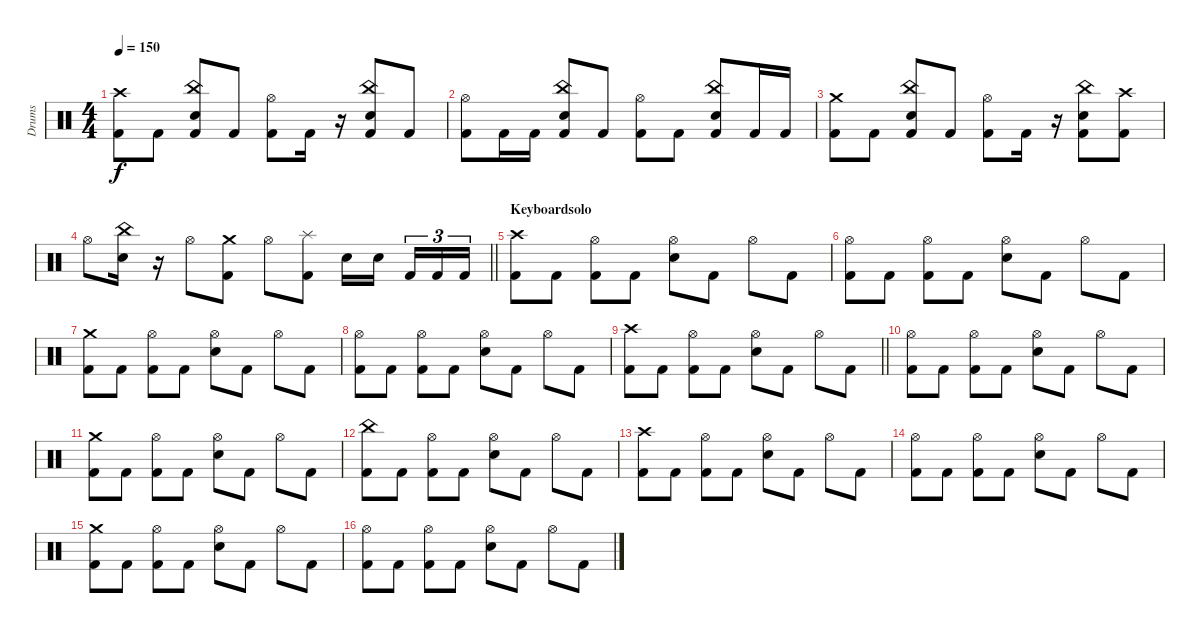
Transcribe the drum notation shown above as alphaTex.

\track ("Drums" "Drums") {instrument percussion}
\staff {score}
\articulation defaults
\ts (4 4)
\tempo 150
\clef neutral
\ks c
("Crash high (hit)" "Kick (hit) 2").8{dy f} "Kick (hit) 2".8 ("China (hit)" "Snare (hit) 2" "Kick (hit) 2").8 "Kick (hit) 2".8 ("Hi-Hat (open)" "Kick (hit) 2").8 "Kick (hit) 2".16 r.16 ("China (hit)" "Snare (hit) 2" "Kick (hit) 2").8 "Kick (hit) 2".8 |
("Hi-Hat (open)" "Kick (hit) 2").8 "Kick (hit) 2".16 "Kick (hit) 2".16 ("China (hit)" "Snare (hit) 2" "Kick (hit) 2").8 "Kick (hit) 2".8 ("Hi-Hat (open)" "Kick (hit) 2").8 "Kick (hit) 2".8 ("China (hit)" "Snare (hit) 2" "Kick (hit) 2").8 "Kick (hit) 2".16 "Kick (hit) 2".16 |
("Crash medium (hit)" "Kick (hit) 2").8 "Kick (hit) 2".8 ("China (hit)" "Snare (hit) 2" "Kick (hit) 2").8 "Kick (hit) 2".8 ("Hi-Hat (open)" "Kick (hit) 2").8 "Kick (hit) 2".16 r.16 ("China (hit)" "Snare (hit) 2" "Kick (hit) 2").8 ("Crash high (hit)" "Kick (hit) 2").8 |
\barLineRight lightlight "Hi-Hat (open)".8
("China (hit)" "Snare (hit) 2").16 r.16 "Hi-Hat (open)".8 ("Crash medium (hit)" "Kick (hit) 2").8 "Hi-Hat (open)".8 ("Splash (hit)" "Kick (hit) 2").8 "Snare (hit) 2".16 "Snare (hit) 2".16{beam splitsecondary} "Kick (hit) 2".16{tu (3 2)} "Kick (hit) 2".16{tu (3 2)} "Kick (hit) 2".16{tu (3 2)} |
\section ("" "Keyboardsolo")
("Crash high (hit)" "Kick (hit) 2").8 "Kick (hit) 2".8 ("Hi-Hat (open)" "Kick (hit) 2").8 "Kick (hit) 2".8 ("Hi-Hat (open)" "Snare (hit) 2").8 "Kick (hit) 2".8 "Hi-Hat (open)".8 "Kick (hit) 2".8 |
("Hi-Hat (open)" "Kick (hit) 2").8 "Kick (hit) 2".8 ("Hi-Hat (open)" "Kick (hit) 2").8 "Kick (hit) 2".8 ("Hi-Hat (open)" "Snare (hit) 2").8 "Kick (hit) 2".8 "Hi-Hat (open)".8 "Kick (hit) 2".8 |
("Crash medium (hit)" "Kick (hit) 2").8 "Kick (hit) 2".8 ("Hi-Hat (open)" "Kick (hit) 2").8 "Kick (hit) 2".8 ("Hi-Hat (open)" "Snare (hit) 2").8 "Kick (hit) 2".8 "Hi-Hat (open)".8 "Kick (hit) 2".8 |
("Hi-Hat (open)" "Kick (hit) 2").8 "Kick (hit) 2".8 ("Hi-Hat (open)" "Kick (hit) 2").8 "Kick (hit) 2".8 ("Hi-Hat (open)" "Snare (hit) 2").8 "Kick (hit) 2".8 "Hi-Hat (open)".8 "Kick (hit) 2".8 |
\barLineRight lightlight
("Crash high (hit)" "Kick (hit) 2").8 "Kick (hit) 2".8 ("Hi-Hat (open)" "Kick (hit) 2").8 "Kick (hit) 2".8 ("Hi-Hat (open)" "Snare (hit) 2").8 "Kick (hit) 2".8 "Hi-Hat (open)".8 "Kick (hit) 2".8 |
("Hi-Hat (open)" "Kick (hit) 2").8 "Kick (hit) 2".8 ("Hi-Hat (open)" "Kick (hit) 2").8 "Kick (hit) 2".8 ("Hi-Hat (open)" "Snare (hit) 2").8 "Kick (hit) 2".8 "Hi-Hat (open)".8 "Kick (hit) 2".8 |
("Crash medium (hit)" "Kick (hit) 2").8 "Kick (hit) 2".8 ("Hi-Hat (open)" "Kick (hit) 2").8 "Kick (hit) 2".8 ("Hi-Hat (open)" "Snare (hit) 2").8 "Kick (hit) 2".8 "Hi-Hat (open)".8 "Kick (hit) 2".8 |
("China (hit)" "Kick (hit) 2").8 "Kick (hit) 2".8 ("Hi-Hat (open)" "Kick (hit) 2").8 "Kick (hit) 2".8 ("Hi-Hat (open)" "Snare (hit) 2").8 "Kick (hit) 2".8 "Hi-Hat (open)".8 "Kick (hit) 2".8 |
("Crash high (hit)" "Kick (hit) 2").8 "Kick (hit) 2".8 ("Hi-Hat (open)" "Kick (hit) 2").8 "Kick (hit) 2".8 ("Hi-Hat (open)" "Snare (hit) 2").8 "Kick (hit) 2".8 "Hi-Hat (open)".8 "Kick (hit) 2".8 |
("Hi-Hat (open)" "Kick (hit) 2").8 "Kick (hit) 2".8 ("Hi-Hat (open)" "Kick (hit) 2").8 "Kick (hit) 2".8 ("Hi-Hat (open)" "Snare (hit) 2").8 "Kick (hit) 2".8 "Hi-Hat (open)".8 "Kick (hit) 2".8 |
("Crash medium (hit)" "Kick (hit) 2").8 "Kick (hit) 2".8 ("Hi-Hat (open)" "Kick (hit) 2").8 "Kick (hit) 2".8 ("Hi-Hat (open)" "Snare (hit) 2").8 "Kick (hit) 2".8 "Hi-Hat (open)".8 "Kick (hit) 2".8 |
("Hi-Hat (open)" "Kick (hit) 2").8 "Kick (hit) 2".8 ("Hi-Hat (open)" "Kick (hit) 2").8 "Kick (hit) 2".8 ("Hi-Hat (open)" "Snare (hit) 2").8 "Kick (hit) 2".8 "Hi-Hat (open)".8 "Kick (hit) 2".8
